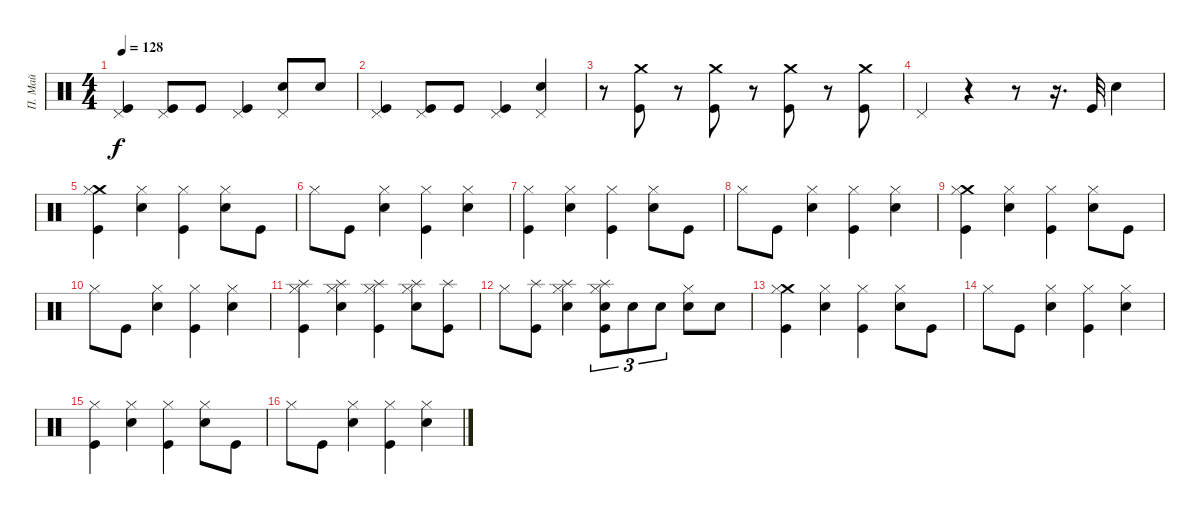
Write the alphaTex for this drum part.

\track ("П. Май" "П. Май") {instrument percussion}
\staff {score}
\articulation defaults
\ts (4 4)
\tempo 128
\clef neutral
\ks c
("Pedal Hi-Hat (hit)" "Kick (hit)").4{dy f} ("Pedal Hi-Hat (hit)" "Kick (hit)").8 "Kick (hit)".8 ("Pedal Hi-Hat (hit)" "Kick (hit)").4 ("Pedal Hi-Hat (hit)" "Snare (hit) 2").8 "Snare (hit) 2".8 |
("Pedal Hi-Hat (hit)" "Kick (hit)").4 ("Pedal Hi-Hat (hit)" "Kick (hit)").8 "Kick (hit)".8 ("Pedal Hi-Hat (hit)" "Kick (hit)").4 ("Pedal Hi-Hat (hit)" "Snare (hit) 2").4 |
r.8 ("Crash medium (hit)" "Kick (hit)").8 r.8 ("Crash medium (hit)" "Kick (hit)").8 r.8 ("Crash medium (hit)" "Kick (hit)").8 r.8 ("Crash medium (hit)" "Kick (hit)").8 |
"Pedal Hi-Hat (hit)".4 r.4 r.8 r.16{d} "Kick (hit)".32 "Snare (hit) 2".4 |
("Crash medium (hit)" "Hi-Hat (closed)" "Kick (hit)").4 ("Hi-Hat (closed)" "Snare (hit) 2").4 ("Hi-Hat (closed)" "Kick (hit)").4 ("Hi-Hat (closed)" "Snare (hit) 2").8 "Kick (hit)".8 |
"Hi-Hat (closed)".8 "Kick (hit)".8 ("Hi-Hat (closed)" "Snare (hit) 2").4 ("Hi-Hat (closed)" "Kick (hit)").4 ("Hi-Hat (closed)" "Snare (hit) 2").4 |
("Hi-Hat (closed)" "Kick (hit)").4 ("Hi-Hat (closed)" "Snare (hit) 2").4 ("Hi-Hat (closed)" "Kick (hit)").4 ("Hi-Hat (closed)" "Snare (hit) 2").8 "Kick (hit)".8 |
"Hi-Hat (closed)".8 "Kick (hit)".8 ("Hi-Hat (closed)" "Snare (hit) 2").4 ("Hi-Hat (closed)" "Kick (hit)").4 ("Hi-Hat (closed)" "Snare (hit) 2").4 |
("Crash medium (hit)" "Hi-Hat (closed)" "Kick (hit)").4 ("Hi-Hat (closed)" "Snare (hit) 2").4 ("Hi-Hat (closed)" "Kick (hit)").4 ("Hi-Hat (closed)" "Snare (hit) 2").8 "Kick (hit)".8 |
"Hi-Hat (closed)".8 "Kick (hit)".8 ("Hi-Hat (closed)" "Snare (hit) 2").4 ("Hi-Hat (closed)" "Kick (hit)").4 ("Hi-Hat (closed)" "Snare (hit) 2").4 |
("Splash (hit)" "Hi-Hat (closed)" "Kick (hit)").4 ("Splash (hit)" "Hi-Hat (closed)" "Snare (hit) 2").4 ("Splash (hit)" "Hi-Hat (closed)" "Kick (hit)").4 ("Splash (hit)" "Hi-Hat (closed)" "Snare (hit) 2").8 ("Splash (hit)" "Kick (hit)").8 |
"Hi-Hat (closed)".8 ("Splash (hit)" "Kick (hit)").8 ("Splash (hit)" "Hi-Hat (closed)" "Snare (hit) 2").4 ("Splash (hit)" "Hi-Hat (closed)" "Snare (hit) 2" "Kick (hit)").8{tu (3 2)} "Snare (hit) 2".8{tu (3 2)} "Snare (hit) 2".8{tu (3 2)} ("Hi-Hat (closed)" "Snare (hit) 2").8 "Snare (hit) 2".8 |
("Crash medium (hit)" "Hi-Hat (closed)" "Kick (hit)").4 ("Hi-Hat (closed)" "Snare (hit) 2").4 ("Hi-Hat (closed)" "Kick (hit)").4 ("Hi-Hat (closed)" "Snare (hit) 2").8 "Kick (hit)".8 |
"Hi-Hat (closed)".8 "Kick (hit)".8 ("Hi-Hat (closed)" "Snare (hit) 2").4 ("Hi-Hat (closed)" "Kick (hit)").4 ("Hi-Hat (closed)" "Snare (hit) 2").4 |
("Hi-Hat (closed)" "Kick (hit)").4 ("Hi-Hat (closed)" "Snare (hit) 2").4 ("Hi-Hat (closed)" "Kick (hit)").4 ("Hi-Hat (closed)" "Snare (hit) 2").8 "Kick (hit)".8 |
"Hi-Hat (closed)".8 "Kick (hit)".8 ("Hi-Hat (closed)" "Snare (hit) 2").4 ("Hi-Hat (closed)" "Kick (hit)").4 ("Hi-Hat (closed)" "Snare (hit) 2").4
